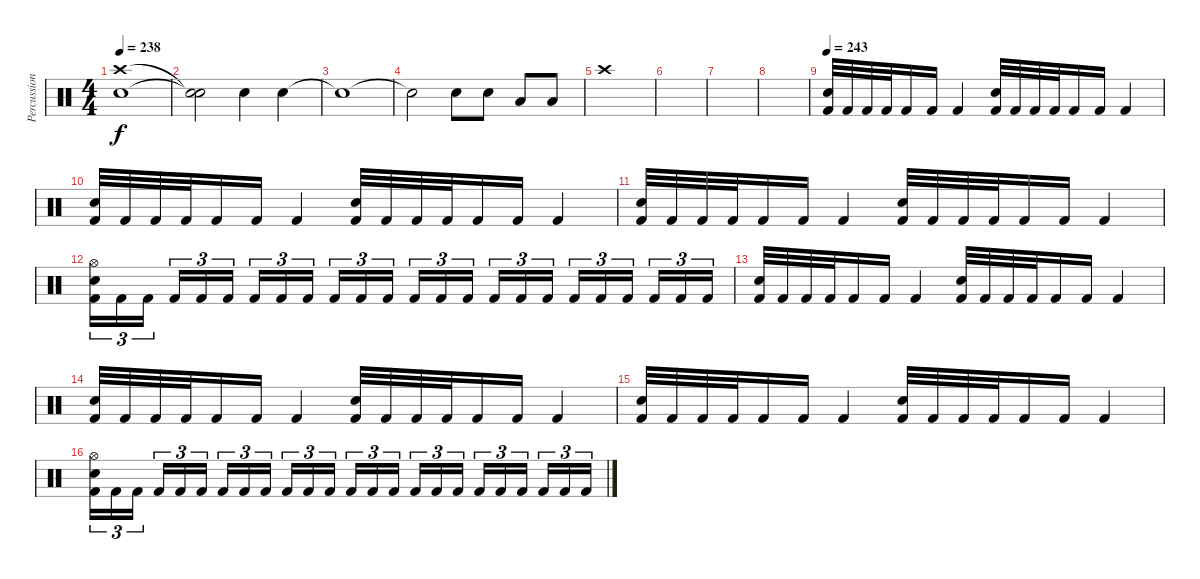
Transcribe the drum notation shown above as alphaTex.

\track ("Percussion" "Percussion") {instrument percussion}
\staff {score}
\articulation defaults
\ts (4 4)
\tempo 238
\clef neutral
\ks c
("Crash high (hit)" "Electric Snare (hit)").1{dy f} |
("Snare (hit)"{t} "Snare (hit)"{t}).2 "Electric Snare (hit)".4 "Electric Snare (hit)".4 |
"Snare (hit)"{t}.1 |
"Snare (hit)"{t}.2 "Electric Snare (hit)".8 "Electric Snare (hit)".8 "Low Tom (hit)".8 "Low Tom (hit)".8 |
"Crash high (hit)".1 |
|
|
|
\tempo 243
("Electric Snare (hit)" "Kick (hit) 2").32 "Kick (hit) 2".32 "Kick (hit) 2".32 "Kick (hit) 2".32 "Kick (hit) 2".16 "Kick (hit) 2".16 "Kick (hit) 2".4 ("Electric Snare (hit)" "Kick (hit) 2").32 "Kick (hit) 2".32 "Kick (hit) 2".32 "Kick (hit) 2".32 "Kick (hit) 2".16 "Kick (hit) 2".16 "Kick (hit) 2".4 |
("Electric Snare (hit)" "Kick (hit) 2").32 "Kick (hit) 2".32 "Kick (hit) 2".32 "Kick (hit) 2".32 "Kick (hit) 2".16 "Kick (hit) 2".16 "Kick (hit) 2".4 ("Electric Snare (hit)" "Kick (hit) 2").32 "Kick (hit) 2".32 "Kick (hit) 2".32 "Kick (hit) 2".32 "Kick (hit) 2".16 "Kick (hit) 2".16 "Kick (hit) 2".4 |
("Electric Snare (hit)" "Kick (hit) 2").32 "Kick (hit) 2".32 "Kick (hit) 2".32 "Kick (hit) 2".32 "Kick (hit) 2".16 "Kick (hit) 2".16 "Kick (hit) 2".4 ("Electric Snare (hit)" "Kick (hit) 2").32 "Kick (hit) 2".32 "Kick (hit) 2".32 "Kick (hit) 2".32 "Kick (hit) 2".16 "Kick (hit) 2".16 "Kick (hit) 2".4 |
("Hi-Hat (open)" "Electric Snare (hit)" "Kick (hit) 2").16{tu (3 2)} "Kick (hit) 2".16{tu (3 2)} "Kick (hit) 2".16{tu (3 2)} "Kick (hit) 2".16{tu (3 2)} "Kick (hit) 2".16{tu (3 2)} "Kick (hit) 2".16{tu (3 2)} "Kick (hit) 2".16{tu (3 2)} "Kick (hit) 2".16{tu (3 2)} "Kick (hit) 2".16{tu (3 2)} "Kick (hit) 2".16{tu (3 2)} "Kick (hit) 2".16{tu (3 2)} "Kick (hit) 2".16{tu (3 2)} "Kick (hit) 2".16{tu (3 2)} "Kick (hit) 2".16{tu (3 2)} "Kick (hit) 2".16{tu (3 2)} "Kick (hit) 2".16{tu (3 2)} "Kick (hit) 2".16{tu (3 2)} "Kick (hit) 2".16{tu (3 2)} "Kick (hit) 2".16{tu (3 2)} "Kick (hit) 2".16{tu (3 2)} "Kick (hit) 2".16{tu (3 2)} "Kick (hit) 2".16{tu (3 2)} "Kick (hit) 2".16{tu (3 2)} "Kick (hit) 2".16{tu (3 2)} |
("Electric Snare (hit)" "Kick (hit) 2").32 "Kick (hit) 2".32 "Kick (hit) 2".32 "Kick (hit) 2".32 "Kick (hit) 2".16 "Kick (hit) 2".16 "Kick (hit) 2".4 ("Electric Snare (hit)" "Kick (hit) 2").32 "Kick (hit) 2".32 "Kick (hit) 2".32 "Kick (hit) 2".32 "Kick (hit) 2".16 "Kick (hit) 2".16 "Kick (hit) 2".4 |
("Electric Snare (hit)" "Kick (hit) 2").32 "Kick (hit) 2".32 "Kick (hit) 2".32 "Kick (hit) 2".32 "Kick (hit) 2".16 "Kick (hit) 2".16 "Kick (hit) 2".4 ("Electric Snare (hit)" "Kick (hit) 2").32 "Kick (hit) 2".32 "Kick (hit) 2".32 "Kick (hit) 2".32 "Kick (hit) 2".16 "Kick (hit) 2".16 "Kick (hit) 2".4 |
("Electric Snare (hit)" "Kick (hit) 2").32 "Kick (hit) 2".32 "Kick (hit) 2".32 "Kick (hit) 2".32 "Kick (hit) 2".16 "Kick (hit) 2".16 "Kick (hit) 2".4 ("Electric Snare (hit)" "Kick (hit) 2").32 "Kick (hit) 2".32 "Kick (hit) 2".32 "Kick (hit) 2".32 "Kick (hit) 2".16 "Kick (hit) 2".16 "Kick (hit) 2".4 |
("Hi-Hat (open)" "Electric Snare (hit)" "Kick (hit) 2").16{tu (3 2)} "Kick (hit) 2".16{tu (3 2)} "Kick (hit) 2".16{tu (3 2)} "Kick (hit) 2".16{tu (3 2)} "Kick (hit) 2".16{tu (3 2)} "Kick (hit) 2".16{tu (3 2)} "Kick (hit) 2".16{tu (3 2)} "Kick (hit) 2".16{tu (3 2)} "Kick (hit) 2".16{tu (3 2)} "Kick (hit) 2".16{tu (3 2)} "Kick (hit) 2".16{tu (3 2)} "Kick (hit) 2".16{tu (3 2)} "Kick (hit) 2".16{tu (3 2)} "Kick (hit) 2".16{tu (3 2)} "Kick (hit) 2".16{tu (3 2)} "Kick (hit) 2".16{tu (3 2)} "Kick (hit) 2".16{tu (3 2)} "Kick (hit) 2".16{tu (3 2)} "Kick (hit) 2".16{tu (3 2)} "Kick (hit) 2".16{tu (3 2)} "Kick (hit) 2".16{tu (3 2)} "Kick (hit) 2".16{tu (3 2)} "Kick (hit) 2".16{tu (3 2)} "Kick (hit) 2".16{tu (3 2)}
